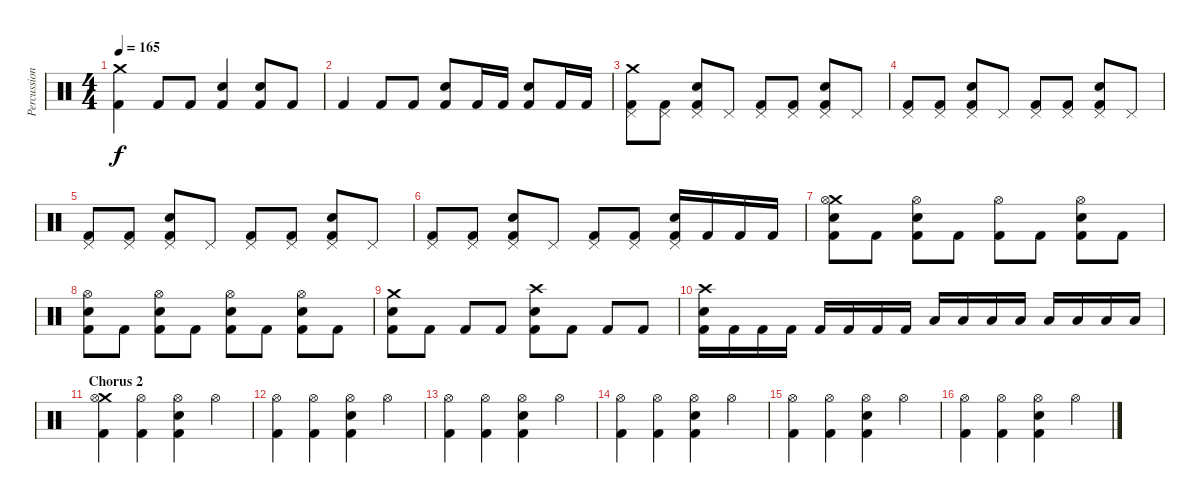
\track ("Percussions" "Percussion") {instrument percussion}
\staff {score}
\articulation defaults
\ts (4 4)
\tempo 165
\clef neutral
\ks c
("Crash medium (hit)" "Kick (hit) 2").4{dy f} "Kick (hit) 2".8 "Kick (hit) 2".8 ("Electric Snare (hit)" "Kick (hit) 2").4 ("Electric Snare (hit)" "Kick (hit) 2").8 "Kick (hit) 2".8 |
"Kick (hit) 2".4 "Kick (hit) 2".8 "Kick (hit) 2".8 ("Electric Snare (hit)" "Kick (hit) 2").8 "Kick (hit) 2".16 "Kick (hit) 2".16 ("Electric Snare (hit)" "Kick (hit) 2").8 "Kick (hit) 2".16 "Kick (hit) 2".16 |
("Crash medium (hit)" "Pedal Hi-Hat (hit)" "Kick (hit) 2").8 ("Pedal Hi-Hat (hit)" "Kick (hit) 2").8 ("Pedal Hi-Hat (hit)" "Electric Snare (hit)" "Kick (hit) 2").8 "Pedal Hi-Hat (hit)".8 ("Pedal Hi-Hat (hit)" "Kick (hit) 2").8 ("Pedal Hi-Hat (hit)" "Kick (hit) 2").8 ("Pedal Hi-Hat (hit)" "Electric Snare (hit)" "Kick (hit) 2").8 "Pedal Hi-Hat (hit)".8 |
("Pedal Hi-Hat (hit)" "Kick (hit) 2").8 ("Pedal Hi-Hat (hit)" "Kick (hit) 2").8 ("Pedal Hi-Hat (hit)" "Electric Snare (hit)" "Kick (hit) 2").8 "Pedal Hi-Hat (hit)".8 ("Pedal Hi-Hat (hit)" "Kick (hit) 2").8 ("Pedal Hi-Hat (hit)" "Kick (hit) 2").8 ("Pedal Hi-Hat (hit)" "Electric Snare (hit)" "Kick (hit) 2").8 "Pedal Hi-Hat (hit)".8 |
("Pedal Hi-Hat (hit)" "Kick (hit) 2").8 ("Pedal Hi-Hat (hit)" "Kick (hit) 2").8 ("Pedal Hi-Hat (hit)" "Electric Snare (hit)" "Kick (hit) 2").8 "Pedal Hi-Hat (hit)".8 ("Pedal Hi-Hat (hit)" "Kick (hit) 2").8 ("Pedal Hi-Hat (hit)" "Kick (hit) 2").8 ("Pedal Hi-Hat (hit)" "Electric Snare (hit)" "Kick (hit) 2").8 "Pedal Hi-Hat (hit)".8 |
("Pedal Hi-Hat (hit)" "Kick (hit) 2").8 ("Pedal Hi-Hat (hit)" "Kick (hit) 2").8 ("Pedal Hi-Hat (hit)" "Electric Snare (hit)" "Kick (hit) 2").8 "Pedal Hi-Hat (hit)".8 ("Pedal Hi-Hat (hit)" "Kick (hit) 2").8 ("Pedal Hi-Hat (hit)" "Kick (hit) 2").8 ("Pedal Hi-Hat (hit)" "Electric Snare (hit)" "Kick (hit) 2").16 "Kick (hit) 2".16 "Kick (hit) 2".16 "Kick (hit) 2".16 |
("Crash medium (hit)" "Hi-Hat (open)" "Electric Snare (hit)" "Kick (hit) 2").8 "Kick (hit) 2".8 ("Hi-Hat (open)" "Electric Snare (hit)" "Kick (hit) 2").8 "Kick (hit) 2".8 ("Hi-Hat (open)" "Kick (hit) 2").8 "Kick (hit) 2".8 ("Hi-Hat (open)" "Electric Snare (hit)" "Kick (hit) 2").8 "Kick (hit) 2".8 |
("Hi-Hat (open)" "Electric Snare (hit)" "Kick (hit) 2").8 "Kick (hit) 2".8 ("Hi-Hat (open)" "Electric Snare (hit)" "Kick (hit) 2").8 "Kick (hit) 2".8 ("Hi-Hat (open)" "Electric Snare (hit)" "Kick (hit) 2").8 "Kick (hit) 2".8 ("Hi-Hat (open)" "Electric Snare (hit)" "Kick (hit) 2").8 "Kick (hit) 2".8 |
("Crash medium (hit)" "Electric Snare (hit)" "Kick (hit) 2").8 "Kick (hit) 2".8 "Kick (hit) 2".8 "Kick (hit) 2".8 ("Crash high (hit)" "Electric Snare (hit)" "Kick (hit) 2").8 "Kick (hit) 2".8 "Kick (hit) 2".8 "Kick (hit) 2".8 |
("Crash high (hit)" "Electric Snare (hit)" "Kick (hit) 2").16 "Kick (hit) 2".16 "Kick (hit) 2".16 "Kick (hit) 2".16 "Kick (hit) 2".16 "Kick (hit) 2".16 "Kick (hit) 2".16 "Kick (hit) 2".16 "Low Tom (hit)".16 "Low Tom (hit)".16 "Low Tom (hit)".16 "Low Tom (hit)".16 "Low Tom (hit)".16 "Low Tom (hit)".16 "Low Tom (hit)".16 "Low Tom (hit)".16 |
\section ("" "Chorus 2")
("Crash medium (hit)" "Hi-Hat (open)" "Kick (hit) 2").4 ("Hi-Hat (open)" "Kick (hit) 2").4 ("Hi-Hat (open)" "Electric Snare (hit)" "Kick (hit) 2").4 "Hi-Hat (open)".4 |
("Hi-Hat (open)" "Kick (hit) 2").4 ("Hi-Hat (open)" "Kick (hit) 2").4 ("Hi-Hat (open)" "Electric Snare (hit)" "Kick (hit) 2").4 "Hi-Hat (open)".4 |
("Hi-Hat (open)" "Kick (hit) 2").4 ("Hi-Hat (open)" "Kick (hit) 2").4 ("Hi-Hat (open)" "Electric Snare (hit)" "Kick (hit) 2").4 "Hi-Hat (open)".4 |
("Hi-Hat (open)" "Kick (hit) 2").4 ("Hi-Hat (open)" "Kick (hit) 2").4 ("Hi-Hat (open)" "Electric Snare (hit)" "Kick (hit) 2").4 "Hi-Hat (open)".4 |
("Hi-Hat (open)" "Kick (hit) 2").4 ("Hi-Hat (open)" "Kick (hit) 2").4 ("Hi-Hat (open)" "Electric Snare (hit)" "Kick (hit) 2").4 "Hi-Hat (open)".4 |
("Hi-Hat (open)" "Kick (hit) 2").4 ("Hi-Hat (open)" "Kick (hit) 2").4 ("Hi-Hat (open)" "Electric Snare (hit)" "Kick (hit) 2").4 "Hi-Hat (open)".4
